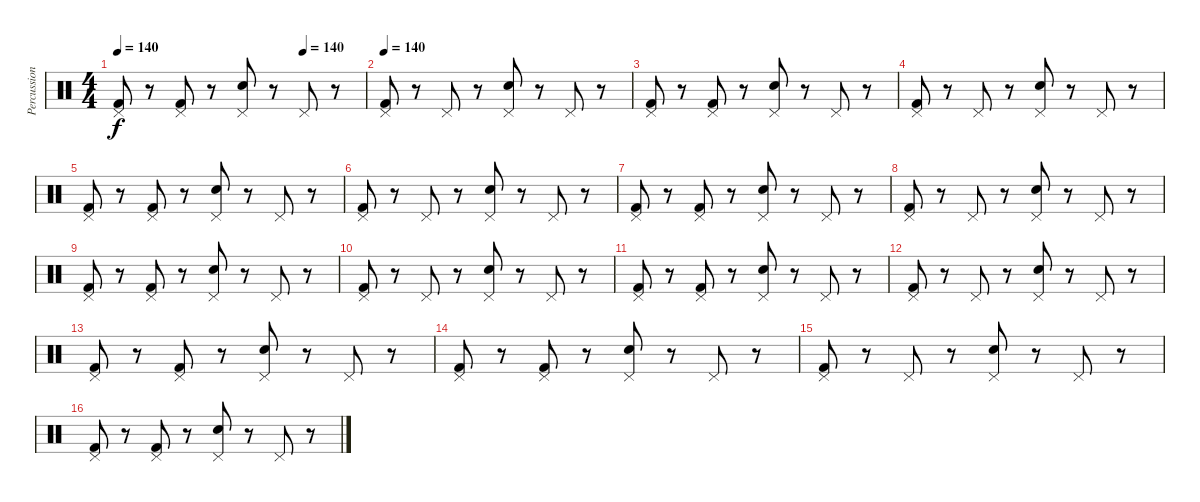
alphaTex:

\track ("Percussion" "Percussion") {instrument percussion}
\staff {score}
\articulation defaults
\ts (4 4)
\tempo 140
\tempo (140 0.75)
\clef neutral
\ks c
("Kick (hit) 2" "Pedal Hi-Hat (hit)").8{dy f} r.8 ("Kick (hit) 2" "Pedal Hi-Hat (hit)").8 r.8 ("Electric Snare (hit)" "Pedal Hi-Hat (hit)").8 r.8 "Pedal Hi-Hat (hit)".8 r.8 |
\tempo 140
("Kick (hit) 2" "Pedal Hi-Hat (hit)").8 r.8 "Pedal Hi-Hat (hit)".8 r.8 ("Electric Snare (hit)" "Pedal Hi-Hat (hit)").8 r.8 "Pedal Hi-Hat (hit)".8 r.8 |
("Kick (hit) 2" "Pedal Hi-Hat (hit)").8 r.8 ("Kick (hit) 2" "Pedal Hi-Hat (hit)").8 r.8 ("Electric Snare (hit)" "Pedal Hi-Hat (hit)").8 r.8 "Pedal Hi-Hat (hit)".8 r.8 |
("Kick (hit) 2" "Pedal Hi-Hat (hit)").8 r.8 "Pedal Hi-Hat (hit)".8 r.8 ("Electric Snare (hit)" "Pedal Hi-Hat (hit)").8 r.8 "Pedal Hi-Hat (hit)".8 r.8 |
("Kick (hit) 2" "Pedal Hi-Hat (hit)").8 r.8 ("Kick (hit) 2" "Pedal Hi-Hat (hit)").8 r.8 ("Electric Snare (hit)" "Pedal Hi-Hat (hit)").8 r.8 "Pedal Hi-Hat (hit)".8 r.8 |
("Kick (hit) 2" "Pedal Hi-Hat (hit)").8 r.8 "Pedal Hi-Hat (hit)".8 r.8 ("Electric Snare (hit)" "Pedal Hi-Hat (hit)").8 r.8 "Pedal Hi-Hat (hit)".8 r.8 |
("Kick (hit) 2" "Pedal Hi-Hat (hit)").8 r.8 ("Kick (hit) 2" "Pedal Hi-Hat (hit)").8 r.8 ("Electric Snare (hit)" "Pedal Hi-Hat (hit)").8 r.8 "Pedal Hi-Hat (hit)".8 r.8 |
("Kick (hit) 2" "Pedal Hi-Hat (hit)").8 r.8 "Pedal Hi-Hat (hit)".8 r.8 ("Electric Snare (hit)" "Pedal Hi-Hat (hit)").8 r.8 "Pedal Hi-Hat (hit)".8 r.8 |
("Kick (hit) 2" "Pedal Hi-Hat (hit)").8 r.8 ("Kick (hit) 2" "Pedal Hi-Hat (hit)").8 r.8 ("Electric Snare (hit)" "Pedal Hi-Hat (hit)").8 r.8 "Pedal Hi-Hat (hit)".8 r.8 |
("Kick (hit) 2" "Pedal Hi-Hat (hit)").8 r.8 "Pedal Hi-Hat (hit)".8 r.8 ("Electric Snare (hit)" "Pedal Hi-Hat (hit)").8 r.8 "Pedal Hi-Hat (hit)".8 r.8 |
("Kick (hit) 2" "Pedal Hi-Hat (hit)").8 r.8 ("Kick (hit) 2" "Pedal Hi-Hat (hit)").8 r.8 ("Electric Snare (hit)" "Pedal Hi-Hat (hit)").8 r.8 "Pedal Hi-Hat (hit)".8 r.8 |
("Kick (hit) 2" "Pedal Hi-Hat (hit)").8 r.8 "Pedal Hi-Hat (hit)".8 r.8 ("Electric Snare (hit)" "Pedal Hi-Hat (hit)").8 r.8 "Pedal Hi-Hat (hit)".8 r.8 |
("Kick (hit) 2" "Pedal Hi-Hat (hit)").8 r.8 ("Kick (hit) 2" "Pedal Hi-Hat (hit)").8 r.8 ("Electric Snare (hit)" "Pedal Hi-Hat (hit)").8 r.8 "Pedal Hi-Hat (hit)".8 r.8 |
("Kick (hit) 2" "Pedal Hi-Hat (hit)").8 r.8 ("Kick (hit) 2" "Pedal Hi-Hat (hit)").8 r.8 ("Electric Snare (hit)" "Pedal Hi-Hat (hit)").8 r.8 "Pedal Hi-Hat (hit)".8 r.8 |
("Kick (hit) 2" "Pedal Hi-Hat (hit)").8 r.8 "Pedal Hi-Hat (hit)".8 r.8 ("Electric Snare (hit)" "Pedal Hi-Hat (hit)").8 r.8 "Pedal Hi-Hat (hit)".8 r.8 |
("Kick (hit) 2" "Pedal Hi-Hat (hit)").8 r.8 ("Kick (hit) 2" "Pedal Hi-Hat (hit)").8 r.8 ("Electric Snare (hit)" "Pedal Hi-Hat (hit)").8 r.8 "Pedal Hi-Hat (hit)".8 r.8
